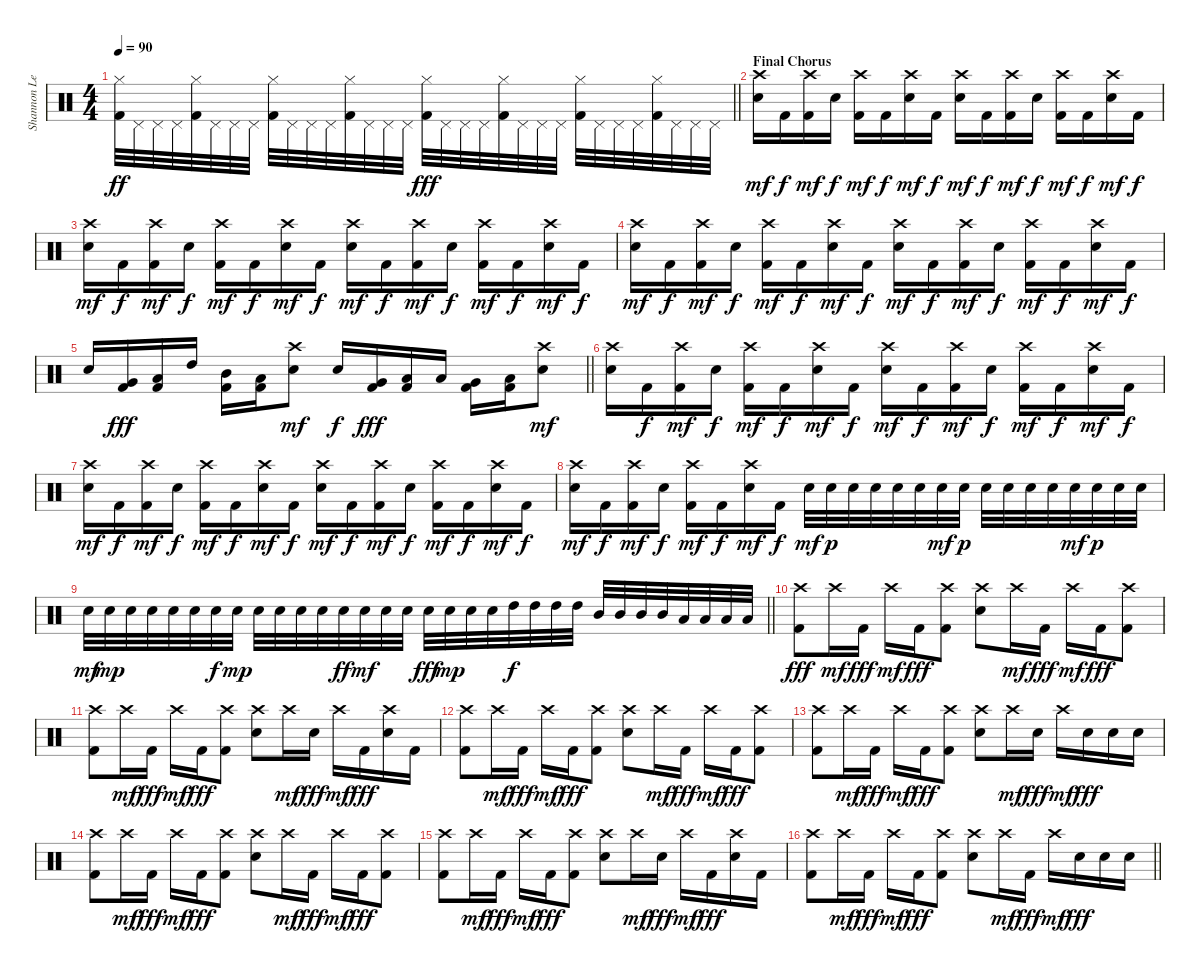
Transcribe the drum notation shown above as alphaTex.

\track ("Shannon Leto - Drums" "Shannon Le") {instrument percussion}
\staff {score}
\articulation defaults
\ts (4 4)
\tempo 90
\clef neutral
\barLineRight lightlight
\ks c
("Hi-Hat (closed)" "Kick (hit) 2").32{dy ff} "Pedal Hi-Hat (hit)".32 "Pedal Hi-Hat (hit)".32 "Pedal Hi-Hat (hit)".32 ("Hi-Hat (closed)" "Kick (hit) 2").32 "Pedal Hi-Hat (hit)".32 "Pedal Hi-Hat (hit)".32 "Pedal Hi-Hat (hit)".32 ("Hi-Hat (closed)" "Kick (hit) 2").32 "Pedal Hi-Hat (hit)".32 "Pedal Hi-Hat (hit)".32 "Pedal Hi-Hat (hit)".32 ("Hi-Hat (closed)" "Kick (hit) 2").32 "Pedal Hi-Hat (hit)".32 "Pedal Hi-Hat (hit)".32 "Pedal Hi-Hat (hit)".32 ("Hi-Hat (closed)" "Kick (hit) 2").32{dy fff} "Pedal Hi-Hat (hit)".32 "Pedal Hi-Hat (hit)".32 "Pedal Hi-Hat (hit)".32 ("Hi-Hat (closed)" "Kick (hit) 2").32 "Pedal Hi-Hat (hit)".32 "Pedal Hi-Hat (hit)".32 "Pedal Hi-Hat (hit)".32 ("Hi-Hat (closed)" "Kick (hit) 2").32 "Pedal Hi-Hat (hit)".32 "Pedal Hi-Hat (hit)".32 "Pedal Hi-Hat (hit)".32 ("Hi-Hat (closed)" "Kick (hit) 2").32 "Pedal Hi-Hat (hit)".32 "Pedal Hi-Hat (hit)".32 "Pedal Hi-Hat (hit)".32 |
\section ("" "Final Chorus")
("Crash high (hit)" "Electric Snare (hit)").16{dy mf} "Kick (hit) 2".16{dy f} ("Crash high (hit)" "Kick (hit) 2").16{dy mf} "Electric Snare (hit)".16{dy f} ("Crash high (hit)" "Kick (hit) 2").16{dy mf} "Kick (hit) 2".16{dy f} ("Crash high (hit)" "Electric Snare (hit)").16{dy mf} "Kick (hit) 2".16{dy f} ("Crash high (hit)" "Electric Snare (hit)").16{dy mf} "Kick (hit) 2".16{dy f} ("Crash high (hit)" "Kick (hit) 2").16{dy mf} "Electric Snare (hit)".16{dy f} ("Crash high (hit)" "Kick (hit) 2").16{dy mf} "Kick (hit) 2".16{dy f} ("Crash high (hit)" "Electric Snare (hit)").16{dy mf} "Kick (hit) 2".16{dy f} |
("Crash high (hit)" "Electric Snare (hit)").16{dy mf} "Kick (hit) 2".16{dy f} ("Crash high (hit)" "Kick (hit) 2").16{dy mf} "Electric Snare (hit)".16{dy f} ("Crash high (hit)" "Kick (hit) 2").16{dy mf} "Kick (hit) 2".16{dy f} ("Crash high (hit)" "Electric Snare (hit)").16{dy mf} "Kick (hit) 2".16{dy f} ("Crash high (hit)" "Electric Snare (hit)").16{dy mf} "Kick (hit) 2".16{dy f} ("Crash high (hit)" "Kick (hit) 2").16{dy mf} "Electric Snare (hit)".16{dy f} ("Crash high (hit)" "Kick (hit) 2").16{dy mf} "Kick (hit) 2".16{dy f} ("Crash high (hit)" "Electric Snare (hit)").16{dy mf} "Kick (hit) 2".16{dy f} |
("Crash high (hit)" "Electric Snare (hit)").16{dy mf} "Kick (hit) 2".16{dy f} ("Crash high (hit)" "Kick (hit) 2").16{dy mf} "Electric Snare (hit)".16{dy f} ("Crash high (hit)" "Kick (hit) 2").16{dy mf} "Kick (hit) 2".16{dy f} ("Crash high (hit)" "Electric Snare (hit)").16{dy mf} "Kick (hit) 2".16{dy f} ("Crash high (hit)" "Electric Snare (hit)").16{dy mf} "Kick (hit) 2".16{dy f} ("Crash high (hit)" "Kick (hit) 2").16{dy mf} "Electric Snare (hit)".16{dy f} ("Crash high (hit)" "Kick (hit) 2").16{dy mf} "Kick (hit) 2".16{dy f} ("Crash high (hit)" "Electric Snare (hit)").16{dy mf} "Kick (hit) 2".16{dy f} |
\barLineRight lightlight "Electric Snare (hit)".16
("Very Low Tom (hit)" "Kick (hit) 2").16{dy fff} ("Low Floor Tom (hit)" "Kick (hit) 2").16 "High Tom (hit)".16 ("Mid Tom (hit)" "Kick (hit) 2").16 ("Low Tom (hit)" "Kick (hit) 2").16 ("Crash high (hit)" "Electric Snare (hit)").8{dy mf} "Electric Snare (hit)".16{dy f} ("Very Low Tom (hit)" "Kick (hit) 2").16{dy fff} ("Low Floor Tom (hit)" "Kick (hit) 2").16 "Low Tom (hit)".16 ("Very Low Tom (hit)" "Kick (hit) 2").16 ("Low Floor Tom (hit)" "Kick (hit) 2").16 ("Crash high (hit)" "Electric Snare (hit)").8{dy mf} |
("Crash high (hit)" "Electric Snare (hit)").16 "Kick (hit) 2".16{dy f} ("Crash high (hit)" "Kick (hit) 2").16{dy mf} "Electric Snare (hit)".16{dy f} ("Crash high (hit)" "Kick (hit) 2").16{dy mf} "Kick (hit) 2".16{dy f} ("Crash high (hit)" "Electric Snare (hit)").16{dy mf} "Kick (hit) 2".16{dy f} ("Crash high (hit)" "Electric Snare (hit)").16{dy mf} "Kick (hit) 2".16{dy f} ("Crash high (hit)" "Kick (hit) 2").16{dy mf} "Electric Snare (hit)".16{dy f} ("Crash high (hit)" "Kick (hit) 2").16{dy mf} "Kick (hit) 2".16{dy f} ("Crash high (hit)" "Electric Snare (hit)").16{dy mf} "Kick (hit) 2".16{dy f} |
("Crash high (hit)" "Electric Snare (hit)").16{dy mf} "Kick (hit) 2".16{dy f} ("Crash high (hit)" "Kick (hit) 2").16{dy mf} "Electric Snare (hit)".16{dy f} ("Crash high (hit)" "Kick (hit) 2").16{dy mf} "Kick (hit) 2".16{dy f} ("Crash high (hit)" "Electric Snare (hit)").16{dy mf} "Kick (hit) 2".16{dy f} ("Crash high (hit)" "Electric Snare (hit)").16{dy mf} "Kick (hit) 2".16{dy f} ("Crash high (hit)" "Kick (hit) 2").16{dy mf} "Electric Snare (hit)".16{dy f} ("Crash high (hit)" "Kick (hit) 2").16{dy mf} "Kick (hit) 2".16{dy f} ("Crash high (hit)" "Electric Snare (hit)").16{dy mf} "Kick (hit) 2".16{dy f} |
("Crash high (hit)" "Electric Snare (hit)").16{dy mf} "Kick (hit) 2".16{dy f} ("Crash high (hit)" "Kick (hit) 2").16{dy mf} "Electric Snare (hit)".16{dy f} ("Crash high (hit)" "Kick (hit) 2").16{dy mf} "Kick (hit) 2".16{dy f} ("Crash high (hit)" "Electric Snare (hit)").16{dy mf} "Kick (hit) 2".16{dy f} "Electric Snare (hit)".32{dy mf} "Electric Snare (hit)".32{dy p} "Electric Snare (hit)".32 "Electric Snare (hit)".32 "Electric Snare (hit)".32 "Electric Snare (hit)".32 "Electric Snare (hit)".32{dy mf} "Electric Snare (hit)".32{dy p} "Electric Snare (hit)".32 "Electric Snare (hit)".32 "Electric Snare (hit)".32 "Electric Snare (hit)".32 "Electric Snare (hit)".32{dy mf} "Electric Snare (hit)".32{dy p} "Electric Snare (hit)".32 "Electric Snare (hit)".32 |
\barLineRight lightlight "Electric Snare (hit)".32{dy mf} "Electric Snare (hit)".32{dy mp} "Electric Snare (hit)".32 "Electric Snare (hit)".32 "Electric Snare (hit)".32 "Electric Snare (hit)".32 "Electric Snare (hit)".32{dy f} "Electric Snare (hit)".32{dy mp} "Electric Snare (hit)".32 "Electric Snare (hit)".32 "Electric Snare (hit)".32 "Electric Snare (hit)".32 "Electric Snare (hit)".32{dy ff} "Electric Snare (hit)".32{dy mf} "Electric Snare (hit)".32 "Electric Snare (hit)".32 "Electric Snare (hit)".32{dy fff} "Electric Snare (hit)".32{dy mp} "Electric Snare (hit)".32 "Electric Snare (hit)".32 "High Tom (hit)".32{dy f} "High Tom (hit)".32 "High Tom (hit)".32 "High Tom (hit)".32 "Mid Tom (hit)".32 "Mid Tom (hit)".32 "Mid Tom (hit)".32 "Mid Tom (hit)".32 "Low Tom (hit)".32 "Low Tom (hit)".32 "Low Tom (hit)".32 "Low Tom (hit)".32
|
\section ("" "")
("Crash high (hit)" "Kick (hit) 2").8{dy fff} "Crash high (hit)".16{dy mf} "Kick (hit) 2".16{dy fff} "Crash high (hit)".16{dy mf} "Kick (hit) 2".16{dy fff} ("Crash high (hit)" "Kick (hit) 2").8 ("Crash high (hit)" "Electric Snare (hit)").8 "Crash high (hit)".16{dy mf} "Kick (hit) 2".16{dy fff} "Crash high (hit)".16{dy mf} "Kick (hit) 2".16{dy fff} ("Crash high (hit)" "Kick (hit) 2").8 |
("Crash high (hit)" "Kick (hit) 2").8 "Crash high (hit)".16{dy mf} "Kick (hit) 2".16{dy fff} "Crash high (hit)".16{dy mf} "Kick (hit) 2".16{dy fff} ("Crash high (hit)" "Kick (hit) 2").8 ("Crash high (hit)" "Electric Snare (hit)").8 "Crash high (hit)".16{dy mf} "Electric Snare (hit)".16{dy fff} "Crash high (hit)".16{dy mf} "Kick (hit) 2".16{dy fff} ("Crash high (hit)" "Electric Snare (hit)").16 "Kick (hit) 2".16 |
("Crash high (hit)" "Kick (hit) 2").8 "Crash high (hit)".16{dy mf} "Kick (hit) 2".16{dy fff} "Crash high (hit)".16{dy mf} "Kick (hit) 2".16{dy fff} ("Crash high (hit)" "Kick (hit) 2").8 ("Crash high (hit)" "Electric Snare (hit)").8 "Crash high (hit)".16{dy mf} "Kick (hit) 2".16{dy fff} "Crash high (hit)".16{dy mf} "Kick (hit) 2".16{dy fff} ("Crash high (hit)" "Kick (hit) 2").8 |
("Crash high (hit)" "Kick (hit) 2").8 "Crash high (hit)".16{dy mf} "Kick (hit) 2".16{dy fff} "Crash high (hit)".16{dy mf} "Kick (hit) 2".16{dy fff} ("Crash high (hit)" "Kick (hit) 2").8 ("Crash high (hit)" "Electric Snare (hit)").8 "Crash high (hit)".16{dy mf} "Electric Snare (hit)".16{dy fff} "Crash high (hit)".16{dy mf} "Electric Snare (hit)".16{dy fff} "Electric Snare (hit)".16 "Electric Snare (hit)".16 |
("Crash high (hit)" "Kick (hit) 2").8 "Crash high (hit)".16{dy mf} "Kick (hit) 2".16{dy fff} "Crash high (hit)".16{dy mf} "Kick (hit) 2".16{dy fff} ("Crash high (hit)" "Kick (hit) 2").8 ("Crash high (hit)" "Electric Snare (hit)").8 "Crash high (hit)".16{dy mf} "Kick (hit) 2".16{dy fff} "Crash high (hit)".16{dy mf} "Kick (hit) 2".16{dy fff} ("Crash high (hit)" "Kick (hit) 2").8 |
("Crash high (hit)" "Kick (hit) 2").8 "Crash high (hit)".16{dy mf} "Kick (hit) 2".16{dy fff} "Crash high (hit)".16{dy mf} "Kick (hit) 2".16{dy fff} ("Crash high (hit)" "Kick (hit) 2").8 ("Crash high (hit)" "Electric Snare (hit)").8 "Crash high (hit)".16{dy mf} "Electric Snare (hit)".16{dy fff} "Crash high (hit)".16{dy mf} "Kick (hit) 2".16{dy fff} ("Crash high (hit)" "Electric Snare (hit)").16 "Kick (hit) 2".16 |
\barLineRight lightlight
("Crash high (hit)" "Kick (hit) 2").8 "Crash high (hit)".16{dy mf} "Kick (hit) 2".16{dy fff} "Crash high (hit)".16{dy mf} "Kick (hit) 2".16{dy fff} ("Crash high (hit)" "Kick (hit) 2").8 ("Crash high (hit)" "Electric Snare (hit)").8 "Crash high (hit)".16{dy mf} "Kick (hit) 2".16{dy fff} "Crash high (hit)".16{dy mf} "Electric Snare (hit)".16{dy fff} "Electric Snare (hit)".16 "Electric Snare (hit)".16
